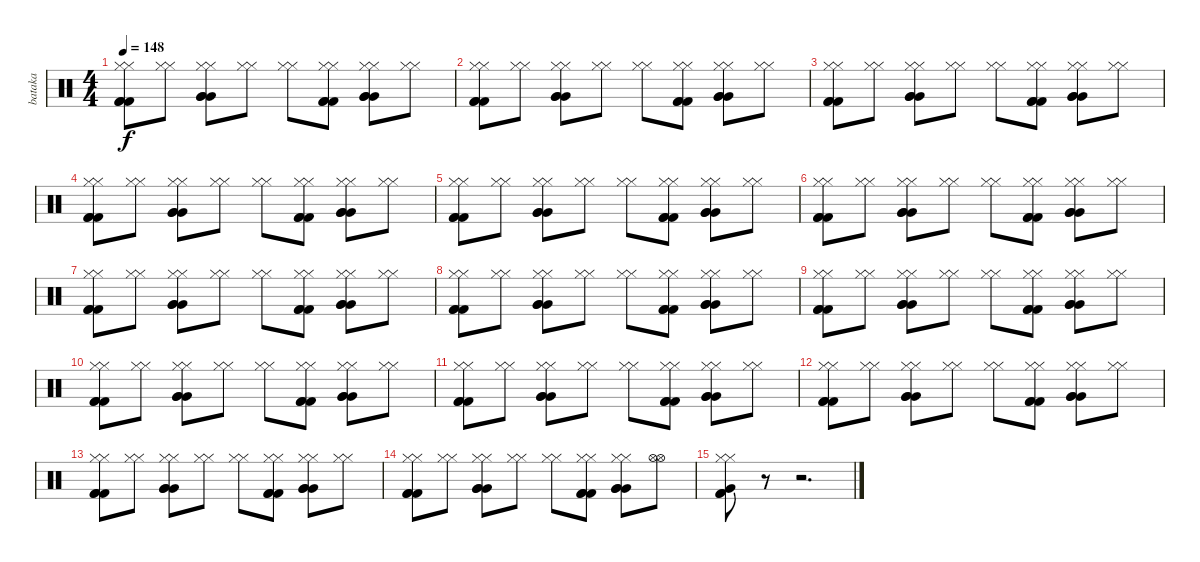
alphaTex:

\track ("bataka" "bataka") {instrument percussion}
\staff {score}
\articulation defaults
\ts (4 4)
\tempo 148
\clef neutral
\ks c
("Hi-Hat (closed)" "Hi-Hat (closed)" "Kick (hit) 2" "Kick (hit) 2" "Kick (hit) 2").8{dy f} ("Hi-Hat (closed)" "Hi-Hat (closed)").8 ("Hi-Hat (closed)" "Hi-Hat (closed)" "Very Low Tom (hit)" "Very Low Tom (hit)" "Very Low Tom (hit)").8 ("Hi-Hat (closed)" "Hi-Hat (closed)").8 ("Hi-Hat (closed)" "Hi-Hat (closed)").8 ("Hi-Hat (closed)" "Hi-Hat (closed)" "Kick (hit) 2" "Kick (hit) 2" "Kick (hit) 2").8 ("Hi-Hat (closed)" "Hi-Hat (closed)" "Very Low Tom (hit)" "Very Low Tom (hit)" "Very Low Tom (hit)").8 ("Hi-Hat (closed)" "Hi-Hat (closed)").8 |
("Hi-Hat (closed)" "Hi-Hat (closed)" "Kick (hit) 2" "Kick (hit) 2" "Kick (hit) 2").8 ("Hi-Hat (closed)" "Hi-Hat (closed)").8 ("Hi-Hat (closed)" "Hi-Hat (closed)" "Very Low Tom (hit)" "Very Low Tom (hit)" "Very Low Tom (hit)").8 ("Hi-Hat (closed)" "Hi-Hat (closed)").8 ("Hi-Hat (closed)" "Hi-Hat (closed)").8 ("Hi-Hat (closed)" "Hi-Hat (closed)" "Kick (hit) 2" "Kick (hit) 2" "Kick (hit) 2").8 ("Hi-Hat (closed)" "Hi-Hat (closed)" "Very Low Tom (hit)" "Very Low Tom (hit)" "Very Low Tom (hit)").8 ("Hi-Hat (closed)" "Hi-Hat (closed)").8 |
("Hi-Hat (closed)" "Hi-Hat (closed)" "Kick (hit) 2" "Kick (hit) 2" "Kick (hit) 2").8 ("Hi-Hat (closed)" "Hi-Hat (closed)").8 ("Hi-Hat (closed)" "Hi-Hat (closed)" "Very Low Tom (hit)" "Very Low Tom (hit)" "Very Low Tom (hit)").8 ("Hi-Hat (closed)" "Hi-Hat (closed)").8 ("Hi-Hat (closed)" "Hi-Hat (closed)").8 ("Hi-Hat (closed)" "Hi-Hat (closed)" "Kick (hit) 2" "Kick (hit) 2" "Kick (hit) 2").8 ("Hi-Hat (closed)" "Hi-Hat (closed)" "Very Low Tom (hit)" "Very Low Tom (hit)" "Very Low Tom (hit)").8 ("Hi-Hat (closed)" "Hi-Hat (closed)").8 |
("Hi-Hat (closed)" "Hi-Hat (closed)" "Kick (hit) 2" "Kick (hit) 2" "Kick (hit) 2").8 ("Hi-Hat (closed)" "Hi-Hat (closed)").8 ("Hi-Hat (closed)" "Hi-Hat (closed)" "Very Low Tom (hit)" "Very Low Tom (hit)" "Very Low Tom (hit)").8 ("Hi-Hat (closed)" "Hi-Hat (closed)").8 ("Hi-Hat (closed)" "Hi-Hat (closed)").8 ("Hi-Hat (closed)" "Hi-Hat (closed)" "Kick (hit) 2" "Kick (hit) 2" "Kick (hit) 2").8 ("Hi-Hat (closed)" "Hi-Hat (closed)" "Very Low Tom (hit)" "Very Low Tom (hit)" "Very Low Tom (hit)").8 ("Hi-Hat (closed)" "Hi-Hat (closed)").8 |
("Hi-Hat (closed)" "Hi-Hat (closed)" "Kick (hit) 2" "Kick (hit) 2" "Kick (hit) 2").8 ("Hi-Hat (closed)" "Hi-Hat (closed)").8 ("Hi-Hat (closed)" "Hi-Hat (closed)" "Very Low Tom (hit)" "Very Low Tom (hit)" "Very Low Tom (hit)").8 ("Hi-Hat (closed)" "Hi-Hat (closed)").8 ("Hi-Hat (closed)" "Hi-Hat (closed)").8 ("Hi-Hat (closed)" "Hi-Hat (closed)" "Kick (hit) 2" "Kick (hit) 2" "Kick (hit) 2").8 ("Hi-Hat (closed)" "Hi-Hat (closed)" "Very Low Tom (hit)" "Very Low Tom (hit)" "Very Low Tom (hit)").8 ("Hi-Hat (closed)" "Hi-Hat (closed)").8 |
("Hi-Hat (closed)" "Hi-Hat (closed)" "Kick (hit) 2" "Kick (hit) 2" "Kick (hit) 2").8 ("Hi-Hat (closed)" "Hi-Hat (closed)").8 ("Hi-Hat (closed)" "Hi-Hat (closed)" "Very Low Tom (hit)" "Very Low Tom (hit)" "Very Low Tom (hit)").8 ("Hi-Hat (closed)" "Hi-Hat (closed)").8 ("Hi-Hat (closed)" "Hi-Hat (closed)").8 ("Hi-Hat (closed)" "Hi-Hat (closed)" "Kick (hit) 2" "Kick (hit) 2" "Kick (hit) 2").8 ("Hi-Hat (closed)" "Hi-Hat (closed)" "Very Low Tom (hit)" "Very Low Tom (hit)" "Very Low Tom (hit)").8 ("Hi-Hat (closed)" "Hi-Hat (closed)").8 |
("Hi-Hat (closed)" "Hi-Hat (closed)" "Kick (hit) 2" "Kick (hit) 2" "Kick (hit) 2").8 ("Hi-Hat (closed)" "Hi-Hat (closed)").8 ("Hi-Hat (closed)" "Hi-Hat (closed)" "Very Low Tom (hit)" "Very Low Tom (hit)" "Very Low Tom (hit)").8 ("Hi-Hat (closed)" "Hi-Hat (closed)").8 ("Hi-Hat (closed)" "Hi-Hat (closed)").8 ("Hi-Hat (closed)" "Hi-Hat (closed)" "Kick (hit) 2" "Kick (hit) 2" "Kick (hit) 2").8 ("Hi-Hat (closed)" "Hi-Hat (closed)" "Very Low Tom (hit)" "Very Low Tom (hit)" "Very Low Tom (hit)").8 ("Hi-Hat (closed)" "Hi-Hat (closed)").8 |
("Hi-Hat (closed)" "Hi-Hat (closed)" "Kick (hit) 2" "Kick (hit) 2" "Kick (hit) 2").8 ("Hi-Hat (closed)" "Hi-Hat (closed)").8 ("Hi-Hat (closed)" "Hi-Hat (closed)" "Very Low Tom (hit)" "Very Low Tom (hit)" "Very Low Tom (hit)").8 ("Hi-Hat (closed)" "Hi-Hat (closed)").8 ("Hi-Hat (closed)" "Hi-Hat (closed)").8 ("Hi-Hat (closed)" "Hi-Hat (closed)" "Kick (hit) 2" "Kick (hit) 2" "Kick (hit) 2").8 ("Hi-Hat (closed)" "Hi-Hat (closed)" "Very Low Tom (hit)" "Very Low Tom (hit)" "Very Low Tom (hit)").8 ("Hi-Hat (closed)" "Hi-Hat (closed)").8 |
("Hi-Hat (closed)" "Hi-Hat (closed)" "Kick (hit) 2" "Kick (hit) 2" "Kick (hit) 2").8 ("Hi-Hat (closed)" "Hi-Hat (closed)").8 ("Hi-Hat (closed)" "Hi-Hat (closed)" "Very Low Tom (hit)" "Very Low Tom (hit)" "Very Low Tom (hit)").8 ("Hi-Hat (closed)" "Hi-Hat (closed)").8 ("Hi-Hat (closed)" "Hi-Hat (closed)").8 ("Hi-Hat (closed)" "Hi-Hat (closed)" "Kick (hit) 2" "Kick (hit) 2" "Kick (hit) 2").8 ("Hi-Hat (closed)" "Hi-Hat (closed)" "Very Low Tom (hit)" "Very Low Tom (hit)" "Very Low Tom (hit)").8 ("Hi-Hat (closed)" "Hi-Hat (closed)").8 |
("Hi-Hat (closed)" "Hi-Hat (closed)" "Kick (hit) 2" "Kick (hit) 2" "Kick (hit) 2").8 ("Hi-Hat (closed)" "Hi-Hat (closed)").8 ("Hi-Hat (closed)" "Hi-Hat (closed)" "Very Low Tom (hit)" "Very Low Tom (hit)" "Very Low Tom (hit)").8 ("Hi-Hat (closed)" "Hi-Hat (closed)").8 ("Hi-Hat (closed)" "Hi-Hat (closed)").8 ("Hi-Hat (closed)" "Hi-Hat (closed)" "Kick (hit) 2" "Kick (hit) 2" "Kick (hit) 2").8 ("Hi-Hat (closed)" "Hi-Hat (closed)" "Very Low Tom (hit)" "Very Low Tom (hit)" "Very Low Tom (hit)").8 ("Hi-Hat (closed)" "Hi-Hat (closed)").8 |
("Hi-Hat (closed)" "Hi-Hat (closed)" "Kick (hit) 2" "Kick (hit) 2" "Kick (hit) 2").8 ("Hi-Hat (closed)" "Hi-Hat (closed)").8 ("Hi-Hat (closed)" "Hi-Hat (closed)" "Very Low Tom (hit)" "Very Low Tom (hit)" "Very Low Tom (hit)").8 ("Hi-Hat (closed)" "Hi-Hat (closed)").8 ("Hi-Hat (closed)" "Hi-Hat (closed)").8 ("Hi-Hat (closed)" "Hi-Hat (closed)" "Kick (hit) 2" "Kick (hit) 2" "Kick (hit) 2").8 ("Hi-Hat (closed)" "Hi-Hat (closed)" "Very Low Tom (hit)" "Very Low Tom (hit)" "Very Low Tom (hit)").8 ("Hi-Hat (closed)" "Hi-Hat (closed)").8 |
("Hi-Hat (closed)" "Hi-Hat (closed)" "Kick (hit) 2" "Kick (hit) 2" "Kick (hit) 2").8 ("Hi-Hat (closed)" "Hi-Hat (closed)").8 ("Hi-Hat (closed)" "Hi-Hat (closed)" "Very Low Tom (hit)" "Very Low Tom (hit)" "Very Low Tom (hit)").8 ("Hi-Hat (closed)" "Hi-Hat (closed)").8 ("Hi-Hat (closed)" "Hi-Hat (closed)").8 ("Hi-Hat (closed)" "Hi-Hat (closed)" "Kick (hit) 2" "Kick (hit) 2" "Kick (hit) 2").8 ("Hi-Hat (closed)" "Hi-Hat (closed)" "Very Low Tom (hit)" "Very Low Tom (hit)" "Very Low Tom (hit)").8 ("Hi-Hat (closed)" "Hi-Hat (closed)").8 |
("Hi-Hat (closed)" "Hi-Hat (closed)" "Kick (hit) 2" "Kick (hit) 2" "Kick (hit) 2").8 ("Hi-Hat (closed)" "Hi-Hat (closed)").8 ("Hi-Hat (closed)" "Hi-Hat (closed)" "Very Low Tom (hit)" "Very Low Tom (hit)" "Very Low Tom (hit)").8 ("Hi-Hat (closed)" "Hi-Hat (closed)").8 ("Hi-Hat (closed)" "Hi-Hat (closed)").8 ("Hi-Hat (closed)" "Hi-Hat (closed)" "Kick (hit) 2" "Kick (hit) 2" "Kick (hit) 2").8 ("Hi-Hat (closed)" "Hi-Hat (closed)" "Very Low Tom (hit)" "Very Low Tom (hit)" "Very Low Tom (hit)").8 ("Hi-Hat (closed)" "Hi-Hat (closed)").8 |
("Hi-Hat (closed)" "Hi-Hat (closed)" "Kick (hit) 2" "Kick (hit) 2" "Kick (hit) 2").8 ("Hi-Hat (closed)" "Hi-Hat (closed)").8 ("Hi-Hat (closed)" "Hi-Hat (closed)" "Very Low Tom (hit)" "Very Low Tom (hit)" "Very Low Tom (hit)").8 ("Hi-Hat (closed)" "Hi-Hat (closed)").8 ("Hi-Hat (closed)" "Hi-Hat (closed)").8 ("Hi-Hat (closed)" "Hi-Hat (closed)" "Kick (hit) 2" "Kick (hit) 2" "Kick (hit) 2").8 ("Hi-Hat (closed)" "Hi-Hat (closed)" "Very Low Tom (hit)" "Very Low Tom (hit)" "Very Low Tom (hit)").8 ("Hi-Hat (open)" "Hi-Hat (open)").8 |
("Hi-Hat (closed)" "Hi-Hat (closed)" "Kick (hit) 2" "Very Low Tom (hit)" "Kick (hit) 2").8 r.8 r.2{d}
